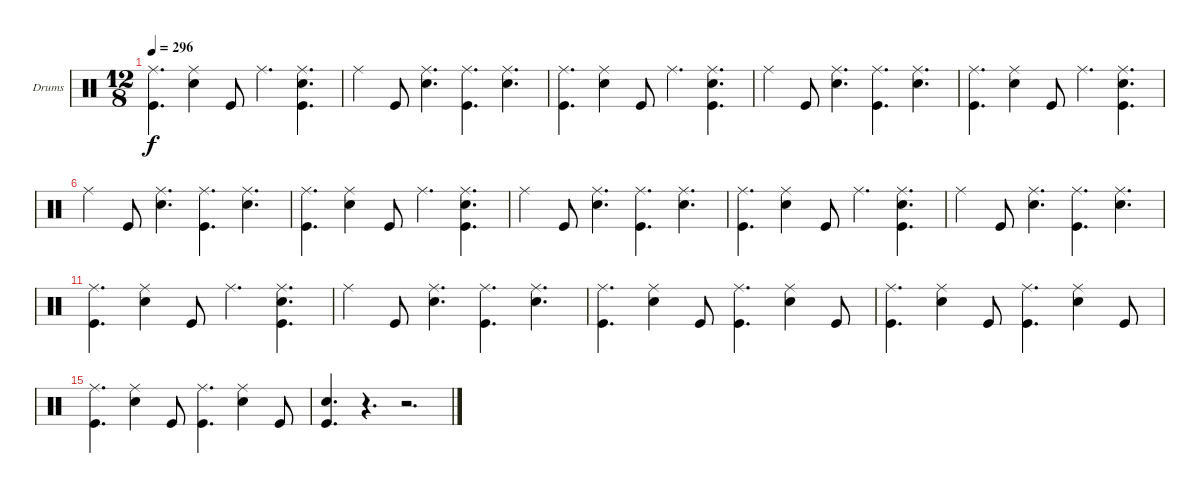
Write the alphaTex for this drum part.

\bracketExtendMode nobrackets
\firstSystemTrackNameOrientation horizontal
\otherSystemsTrackNameOrientation horizontal
\defaultBarNumberDisplay FirstOfSystem
\track ("Drumkit" "Drums") {instrument percussion}
\staff {score}
\articulation defaults
\ts (12 8)
\tempo 296
\clef neutral
\ks c
("Ride (middle)" "Kick (hit)").4{d dy f} ("Ride (middle)" "Snare (hit) 2").4 "Kick (hit)".8 "Ride (middle)".4{d} ("Ride (middle)" "Snare (hit) 2" "Kick (hit)").4{d} |
"Ride (middle)".4 "Kick (hit)".8 ("Ride (middle)" "Snare (hit) 2").4{d} ("Ride (middle)" "Kick (hit)").4{d} ("Ride (middle)" "Snare (hit) 2").4{d} |
("Ride (middle)" "Kick (hit)").4{d} ("Ride (middle)" "Snare (hit) 2").4 "Kick (hit)".8 "Ride (middle)".4{d} ("Ride (middle)" "Snare (hit) 2" "Kick (hit)").4{d} |
"Ride (middle)".4 "Kick (hit)".8 ("Ride (middle)" "Snare (hit) 2").4{d} ("Ride (middle)" "Kick (hit)").4{d} ("Ride (middle)" "Snare (hit) 2").4{d} |
("Ride (middle)" "Kick (hit)").4{d} ("Ride (middle)" "Snare (hit) 2").4 "Kick (hit)".8 "Ride (middle)".4{d} ("Ride (middle)" "Snare (hit) 2" "Kick (hit)").4{d} |
"Ride (middle)".4 "Kick (hit)".8 ("Ride (middle)" "Snare (hit) 2").4{d} ("Ride (middle)" "Kick (hit)").4{d} ("Ride (middle)" "Snare (hit) 2").4{d} |
("Ride (middle)" "Kick (hit)").4{d} ("Ride (middle)" "Snare (hit) 2").4 "Kick (hit)".8 "Ride (middle)".4{d} ("Ride (middle)" "Snare (hit) 2" "Kick (hit)").4{d} |
"Ride (middle)".4 "Kick (hit)".8 ("Ride (middle)" "Snare (hit) 2").4{d} ("Ride (middle)" "Kick (hit)").4{d} ("Ride (middle)" "Snare (hit) 2").4{d} |
("Ride (middle)" "Kick (hit)").4{d} ("Ride (middle)" "Snare (hit) 2").4 "Kick (hit)".8 "Ride (middle)".4{d} ("Ride (middle)" "Snare (hit) 2" "Kick (hit)").4{d} |
"Ride (middle)".4 "Kick (hit)".8 ("Ride (middle)" "Snare (hit) 2").4{d} ("Ride (middle)" "Kick (hit)").4{d} ("Ride (middle)" "Snare (hit) 2").4{d} |
("Ride (middle)" "Kick (hit)").4{d} ("Ride (middle)" "Snare (hit) 2").4 "Kick (hit)".8 "Ride (middle)".4{d} ("Ride (middle)" "Snare (hit) 2" "Kick (hit)").4{d} |
"Ride (middle)".4 "Kick (hit)".8 ("Ride (middle)" "Snare (hit) 2").4{d} ("Ride (middle)" "Kick (hit)").4{d} ("Ride (middle)" "Snare (hit) 2").4{d} |
("Ride (middle)" "Kick (hit)").4{d} ("Ride (middle)" "Snare (hit) 2").4 "Kick (hit)".8 ("Ride (middle)" "Kick (hit)").4{d} ("Ride (middle)" "Snare (hit) 2").4 "Kick (hit)".8 |
("Ride (middle)" "Kick (hit)").4{d} ("Ride (middle)" "Snare (hit) 2").4 "Kick (hit)".8 ("Ride (middle)" "Kick (hit)").4{d} ("Ride (middle)" "Snare (hit) 2").4 "Kick (hit)".8 |
("Ride (middle)" "Kick (hit)").4{d} ("Ride (middle)" "Snare (hit) 2").4 "Kick (hit)".8 ("Ride (middle)" "Kick (hit)").4{d} ("Ride (middle)" "Snare (hit) 2").4 "Kick (hit)".8 |
("Snare (hit) 2" "Kick (hit)").4{d} r.4{d} r.2{d}
